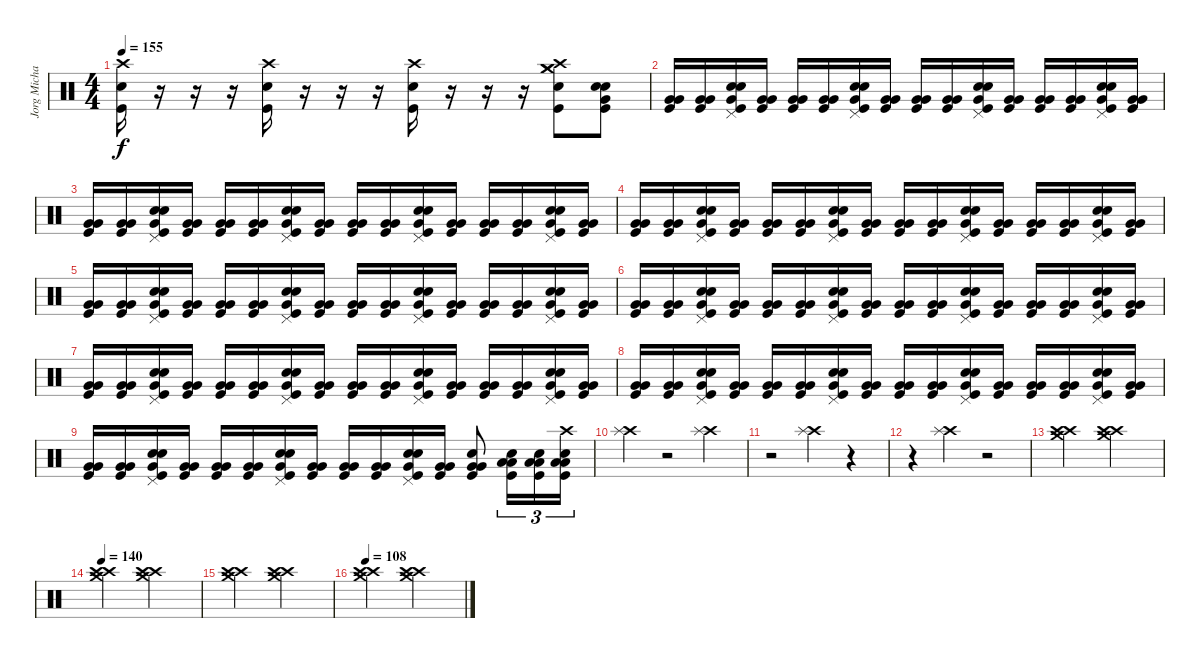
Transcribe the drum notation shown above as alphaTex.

\track ("Jorg Michael" "Jorg Micha") {instrument percussion}
\staff {score}
\articulation defaults
\ts (4 4)
\tempo 155
\clef neutral
\ks c
("Crash high (hit)" "Snare (hit) 2" "Kick (hit)").16{dy f} r.16 r.16 r.16 ("Crash high (hit)" "Snare (hit) 2" "Kick (hit)").16 r.16 r.16 r.16 ("Crash high (hit)" "Snare (hit) 2" "Kick (hit)").16 r.16 r.16 r.16 ("Crash medium (hit)" "Crash high (hit)" "Crash medium (hit)" "Snare (hit) 2" "Kick (hit)").8 ("Kick (hit)" "Snare (hit) 2" "Snare (hit) 2" "Very Low Tom (hit)").8 |
("Very Low Tom (hit)" "Very Low Tom (hit)" "Kick (hit)").16 ("Very Low Tom (hit)" "Very Low Tom (hit)" "Kick (hit)").16 ("Snare (hit) 2" "Snare (hit) 2" "Pedal Hi-Hat (hit)" "Very Low Tom (hit)" "Kick (hit)").16 ("Very Low Tom (hit)" "Very Low Tom (hit)" "Kick (hit)").16 ("Very Low Tom (hit)" "Very Low Tom (hit)" "Kick (hit)").16 ("Very Low Tom (hit)" "Very Low Tom (hit)" "Kick (hit)").16 ("Snare (hit) 2" "Snare (hit) 2" "Pedal Hi-Hat (hit)" "Very Low Tom (hit)" "Kick (hit)").16 ("Very Low Tom (hit)" "Very Low Tom (hit)" "Kick (hit)").16 ("Very Low Tom (hit)" "Very Low Tom (hit)" "Kick (hit)").16 ("Very Low Tom (hit)" "Very Low Tom (hit)" "Kick (hit)").16 ("Snare (hit) 2" "Snare (hit) 2" "Pedal Hi-Hat (hit)" "Very Low Tom (hit)" "Kick (hit)").16 ("Very Low Tom (hit)" "Very Low Tom (hit)" "Kick (hit)").16 ("Very Low Tom (hit)" "Very Low Tom (hit)" "Kick (hit)").16 ("Very Low Tom (hit)" "Very Low Tom (hit)" "Kick (hit)").16 ("Snare (hit) 2" "Snare (hit) 2" "Pedal Hi-Hat (hit)" "Very Low Tom (hit)" "Kick (hit)").16 ("Very Low Tom (hit)" "Very Low Tom (hit)" "Kick (hit)").16 |
("Very Low Tom (hit)" "Very Low Tom (hit)" "Kick (hit)").16 ("Very Low Tom (hit)" "Very Low Tom (hit)" "Kick (hit)").16 ("Snare (hit) 2" "Snare (hit) 2" "Pedal Hi-Hat (hit)" "Very Low Tom (hit)" "Kick (hit)").16 ("Very Low Tom (hit)" "Very Low Tom (hit)" "Kick (hit)").16 ("Very Low Tom (hit)" "Very Low Tom (hit)" "Kick (hit)").16 ("Very Low Tom (hit)" "Very Low Tom (hit)" "Kick (hit)").16 ("Snare (hit) 2" "Snare (hit) 2" "Pedal Hi-Hat (hit)" "Very Low Tom (hit)" "Kick (hit)").16 ("Very Low Tom (hit)" "Very Low Tom (hit)" "Kick (hit)").16 ("Very Low Tom (hit)" "Very Low Tom (hit)" "Kick (hit)").16 ("Very Low Tom (hit)" "Very Low Tom (hit)" "Kick (hit)").16 ("Snare (hit) 2" "Snare (hit) 2" "Pedal Hi-Hat (hit)" "Very Low Tom (hit)" "Kick (hit)").16 ("Very Low Tom (hit)" "Very Low Tom (hit)" "Kick (hit)").16 ("Very Low Tom (hit)" "Very Low Tom (hit)" "Kick (hit)").16 ("Very Low Tom (hit)" "Very Low Tom (hit)" "Kick (hit)").16 ("Snare (hit) 2" "Snare (hit) 2" "Pedal Hi-Hat (hit)" "Very Low Tom (hit)" "Kick (hit)").16 ("Very Low Tom (hit)" "Very Low Tom (hit)" "Kick (hit)").16 |
("Very Low Tom (hit)" "Very Low Tom (hit)" "Kick (hit)").16 ("Very Low Tom (hit)" "Very Low Tom (hit)" "Kick (hit)").16 ("Snare (hit) 2" "Snare (hit) 2" "Pedal Hi-Hat (hit)" "Very Low Tom (hit)" "Kick (hit)").16 ("Very Low Tom (hit)" "Very Low Tom (hit)" "Kick (hit)").16 ("Very Low Tom (hit)" "Very Low Tom (hit)" "Kick (hit)").16 ("Very Low Tom (hit)" "Very Low Tom (hit)" "Kick (hit)").16 ("Snare (hit) 2" "Snare (hit) 2" "Pedal Hi-Hat (hit)" "Very Low Tom (hit)" "Kick (hit)").16 ("Very Low Tom (hit)" "Very Low Tom (hit)" "Kick (hit)").16 ("Very Low Tom (hit)" "Very Low Tom (hit)" "Kick (hit)").16 ("Very Low Tom (hit)" "Very Low Tom (hit)" "Kick (hit)").16 ("Snare (hit) 2" "Snare (hit) 2" "Pedal Hi-Hat (hit)" "Very Low Tom (hit)" "Kick (hit)").16 ("Very Low Tom (hit)" "Very Low Tom (hit)" "Kick (hit)").16 ("Very Low Tom (hit)" "Very Low Tom (hit)" "Kick (hit)").16 ("Very Low Tom (hit)" "Very Low Tom (hit)" "Kick (hit)").16 ("Snare (hit) 2" "Snare (hit) 2" "Pedal Hi-Hat (hit)" "Very Low Tom (hit)" "Kick (hit)").16 ("Very Low Tom (hit)" "Very Low Tom (hit)" "Kick (hit)").16 |
("Very Low Tom (hit)" "Very Low Tom (hit)" "Kick (hit)").16 ("Very Low Tom (hit)" "Very Low Tom (hit)" "Kick (hit)").16 ("Snare (hit) 2" "Snare (hit) 2" "Pedal Hi-Hat (hit)" "Very Low Tom (hit)" "Kick (hit)").16 ("Very Low Tom (hit)" "Very Low Tom (hit)" "Kick (hit)").16 ("Very Low Tom (hit)" "Very Low Tom (hit)" "Kick (hit)").16 ("Very Low Tom (hit)" "Very Low Tom (hit)" "Kick (hit)").16 ("Snare (hit) 2" "Snare (hit) 2" "Pedal Hi-Hat (hit)" "Very Low Tom (hit)" "Kick (hit)").16 ("Very Low Tom (hit)" "Very Low Tom (hit)" "Kick (hit)").16 ("Very Low Tom (hit)" "Very Low Tom (hit)" "Kick (hit)").16 ("Very Low Tom (hit)" "Very Low Tom (hit)" "Kick (hit)").16 ("Snare (hit) 2" "Snare (hit) 2" "Pedal Hi-Hat (hit)" "Very Low Tom (hit)" "Kick (hit)").16 ("Very Low Tom (hit)" "Very Low Tom (hit)" "Kick (hit)").16 ("Very Low Tom (hit)" "Very Low Tom (hit)" "Kick (hit)").16 ("Very Low Tom (hit)" "Very Low Tom (hit)" "Kick (hit)").16 ("Snare (hit) 2" "Snare (hit) 2" "Pedal Hi-Hat (hit)" "Very Low Tom (hit)" "Kick (hit)").16 ("Very Low Tom (hit)" "Very Low Tom (hit)" "Kick (hit)").16 |
("Very Low Tom (hit)" "Very Low Tom (hit)" "Kick (hit)").16 ("Very Low Tom (hit)" "Very Low Tom (hit)" "Kick (hit)").16 ("Snare (hit) 2" "Snare (hit) 2" "Pedal Hi-Hat (hit)" "Very Low Tom (hit)" "Kick (hit)").16 ("Very Low Tom (hit)" "Very Low Tom (hit)" "Kick (hit)").16 ("Very Low Tom (hit)" "Very Low Tom (hit)" "Kick (hit)").16 ("Very Low Tom (hit)" "Very Low Tom (hit)" "Kick (hit)").16 ("Snare (hit) 2" "Snare (hit) 2" "Pedal Hi-Hat (hit)" "Very Low Tom (hit)" "Kick (hit)").16 ("Very Low Tom (hit)" "Very Low Tom (hit)" "Kick (hit)").16 ("Very Low Tom (hit)" "Very Low Tom (hit)" "Kick (hit)").16 ("Very Low Tom (hit)" "Very Low Tom (hit)" "Kick (hit)").16 ("Snare (hit) 2" "Snare (hit) 2" "Pedal Hi-Hat (hit)" "Very Low Tom (hit)" "Kick (hit)").16 ("Very Low Tom (hit)" "Very Low Tom (hit)" "Kick (hit)").16 ("Very Low Tom (hit)" "Very Low Tom (hit)" "Kick (hit)").16 ("Very Low Tom (hit)" "Very Low Tom (hit)" "Kick (hit)").16 ("Snare (hit) 2" "Snare (hit) 2" "Pedal Hi-Hat (hit)" "Very Low Tom (hit)" "Kick (hit)").16 ("Very Low Tom (hit)" "Very Low Tom (hit)" "Kick (hit)").16 |
("Very Low Tom (hit)" "Very Low Tom (hit)" "Kick (hit)").16 ("Very Low Tom (hit)" "Very Low Tom (hit)" "Kick (hit)").16 ("Snare (hit) 2" "Snare (hit) 2" "Pedal Hi-Hat (hit)" "Very Low Tom (hit)" "Kick (hit)").16 ("Very Low Tom (hit)" "Very Low Tom (hit)" "Kick (hit)").16 ("Very Low Tom (hit)" "Very Low Tom (hit)" "Kick (hit)").16 ("Very Low Tom (hit)" "Very Low Tom (hit)" "Kick (hit)").16 ("Snare (hit) 2" "Snare (hit) 2" "Pedal Hi-Hat (hit)" "Very Low Tom (hit)" "Kick (hit)").16 ("Very Low Tom (hit)" "Very Low Tom (hit)" "Kick (hit)").16 ("Very Low Tom (hit)" "Very Low Tom (hit)" "Kick (hit)").16 ("Very Low Tom (hit)" "Very Low Tom (hit)" "Kick (hit)").16 ("Snare (hit) 2" "Snare (hit) 2" "Pedal Hi-Hat (hit)" "Very Low Tom (hit)" "Kick (hit)").16 ("Very Low Tom (hit)" "Very Low Tom (hit)" "Kick (hit)").16 ("Very Low Tom (hit)" "Very Low Tom (hit)" "Kick (hit)").16 ("Very Low Tom (hit)" "Very Low Tom (hit)" "Kick (hit)").16 ("Snare (hit) 2" "Snare (hit) 2" "Pedal Hi-Hat (hit)" "Very Low Tom (hit)" "Kick (hit)").16 ("Very Low Tom (hit)" "Very Low Tom (hit)" "Kick (hit)").16 |
("Very Low Tom (hit)" "Very Low Tom (hit)" "Kick (hit)").16 ("Very Low Tom (hit)" "Very Low Tom (hit)" "Kick (hit)").16 ("Snare (hit) 2" "Snare (hit) 2" "Pedal Hi-Hat (hit)" "Very Low Tom (hit)" "Kick (hit)").16 ("Very Low Tom (hit)" "Very Low Tom (hit)" "Kick (hit)").16 ("Very Low Tom (hit)" "Very Low Tom (hit)" "Kick (hit)").16 ("Very Low Tom (hit)" "Very Low Tom (hit)" "Kick (hit)").16 ("Snare (hit) 2" "Snare (hit) 2" "Pedal Hi-Hat (hit)" "Very Low Tom (hit)" "Kick (hit)").16 ("Very Low Tom (hit)" "Very Low Tom (hit)" "Kick (hit)").16 ("Very Low Tom (hit)" "Very Low Tom (hit)" "Kick (hit)").16 ("Very Low Tom (hit)" "Very Low Tom (hit)" "Kick (hit)").16 ("Snare (hit) 2" "Snare (hit) 2" "Pedal Hi-Hat (hit)" "Very Low Tom (hit)" "Kick (hit)").16 ("Very Low Tom (hit)" "Very Low Tom (hit)" "Kick (hit)").16 ("Very Low Tom (hit)" "Very Low Tom (hit)" "Kick (hit)").16 ("Very Low Tom (hit)" "Very Low Tom (hit)" "Kick (hit)").16 ("Snare (hit) 2" "Snare (hit) 2" "Pedal Hi-Hat (hit)" "Very Low Tom (hit)" "Kick (hit)").16 ("Very Low Tom (hit)" "Very Low Tom (hit)" "Kick (hit)").16 |
("Very Low Tom (hit)" "Very Low Tom (hit)" "Kick (hit)").16 ("Very Low Tom (hit)" "Very Low Tom (hit)" "Kick (hit)").16 ("Snare (hit) 2" "Snare (hit) 2" "Pedal Hi-Hat (hit)" "Very Low Tom (hit)" "Kick (hit)").16 ("Very Low Tom (hit)" "Very Low Tom (hit)" "Kick (hit)").16 ("Very Low Tom (hit)" "Very Low Tom (hit)" "Kick (hit)").16 ("Very Low Tom (hit)" "Very Low Tom (hit)" "Kick (hit)").16 ("Snare (hit) 2" "Snare (hit) 2" "Pedal Hi-Hat (hit)" "Very Low Tom (hit)" "Kick (hit)").16 ("Very Low Tom (hit)" "Very Low Tom (hit)" "Kick (hit)").16 ("Very Low Tom (hit)" "Very Low Tom (hit)" "Kick (hit)").16 ("Very Low Tom (hit)" "Very Low Tom (hit)" "Kick (hit)").16 ("Snare (hit) 2" "Snare (hit) 2" "Pedal Hi-Hat (hit)" "Very Low Tom (hit)" "Kick (hit)").16 ("Very Low Tom (hit)" "Very Low Tom (hit)" "Kick (hit)").16 ("Snare (hit) 2" "Kick (hit)" "Very Low Tom (hit)" "Very Low Tom (hit)").8 ("Low Tom (hit)" "Low Tom (hit)" "Kick (hit)" "Snare (hit) 2").16{tu (3 2)} ("Low Tom (hit)" "Low Tom (hit)" "Kick (hit)" "Snare (hit) 2").16{tu (3 2)} ("Low Tom (hit)" "Low Tom (hit)" "Crash high (hit)" "Kick (hit)" "Snare (hit) 2").16{tu (3 2)} |
("Crash high (hit)" "Splash (hit)").4 r.2 ("Crash high (hit)" "Splash (hit)").4 |
r.2 ("Crash high (hit)" "Splash (hit)").4 r.4 |
r.4 ("Crash high (hit)" "Splash (hit)").4 r.2 |
("Crash medium (hit)" "Crash high (hit)" "Crash high (hit)").2 ("Crash medium (hit)" "Crash high (hit)" "Crash high (hit)").2 |
\tempo 140
("Crash medium (hit)" "Crash high (hit)" "Crash high (hit)").2 ("Crash medium (hit)" "Crash high (hit)" "Crash high (hit)").2 |
("Crash medium (hit)" "Crash high (hit)" "Crash high (hit)").2 ("Crash medium (hit)" "Crash high (hit)" "Crash high (hit)").2 |
\tempo 108
("Crash medium (hit)" "Crash high (hit)" "Crash high (hit)").2 ("Crash medium (hit)" "Crash high (hit)" "Crash high (hit)").2
